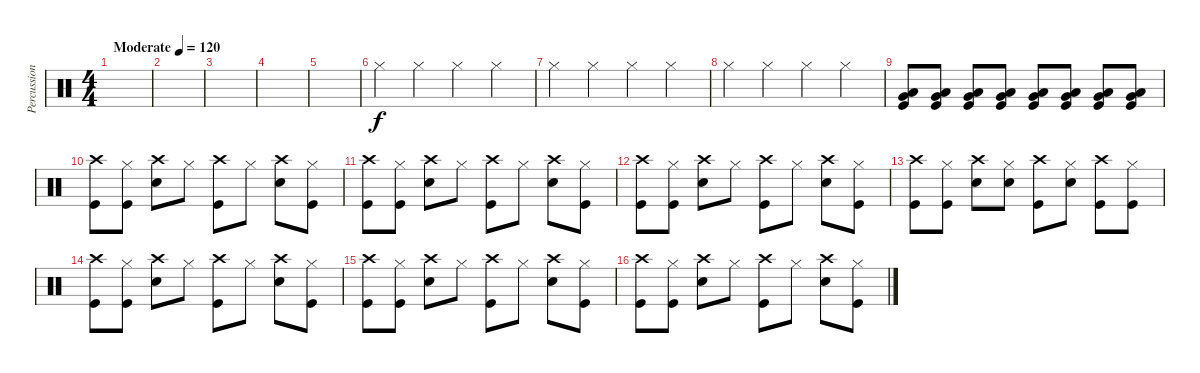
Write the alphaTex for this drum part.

\track ("Percussion" "Percussion") {instrument percussion}
\staff {score}
\articulation defaults
\ts (4 4)
\tempo (120 "Moderate")
\clef neutral
\ks c
|
|
|
|
|
"Hi-Hat (closed)".4 "Hi-Hat (closed)".4 "Hi-Hat (closed)".4 "Hi-Hat (closed)".4 |
"Hi-Hat (closed)".4 "Hi-Hat (closed)".4 "Hi-Hat (closed)".4 "Hi-Hat (closed)".4 |
"Hi-Hat (closed)".4 "Hi-Hat (closed)".4 "Hi-Hat (closed)".4 "Hi-Hat (closed)".4 |
("Very Low Tom (hit)" "Low Tom (hit)" "Kick (hit)").8 ("Very Low Tom (hit)" "Low Tom (hit)" "Kick (hit)").8 ("Very Low Tom (hit)" "Low Tom (hit)" "Kick (hit)").8 ("Very Low Tom (hit)" "Low Tom (hit)" "Kick (hit)").8 ("Very Low Tom (hit)" "Low Tom (hit)" "Kick (hit)").8 ("Very Low Tom (hit)" "Low Tom (hit)" "Kick (hit)").8 ("Very Low Tom (hit)" "Low Tom (hit)" "Kick (hit)").8 ("Very Low Tom (hit)" "Low Tom (hit)" "Kick (hit)").8 |
("Crash high (hit)" "Kick (hit)").8 ("Hi-Hat (closed)" "Kick (hit)").8 ("Crash high (hit)" "Snare (hit) 2").8 "Hi-Hat (closed)".8 ("Crash high (hit)" "Kick (hit)").8 "Hi-Hat (closed)".8 ("Crash high (hit)" "Snare (hit) 2").8 ("Hi-Hat (closed)" "Kick (hit)").8 |
("Crash high (hit)" "Kick (hit)").8 ("Hi-Hat (closed)" "Kick (hit)").8 ("Crash high (hit)" "Snare (hit) 2").8 "Hi-Hat (closed)".8 ("Crash high (hit)" "Kick (hit)").8 "Hi-Hat (closed)".8 ("Crash high (hit)" "Snare (hit) 2").8 ("Hi-Hat (closed)" "Kick (hit)").8 |
("Crash high (hit)" "Kick (hit)").8 ("Hi-Hat (closed)" "Kick (hit)").8 ("Crash high (hit)" "Snare (hit) 2").8 "Hi-Hat (closed)".8 ("Crash high (hit)" "Kick (hit)").8 "Hi-Hat (closed)".8 ("Crash high (hit)" "Snare (hit) 2").8 ("Hi-Hat (closed)" "Kick (hit)").8 |
("Crash high (hit)" "Kick (hit)").8 ("Hi-Hat (closed)" "Kick (hit)").8 ("Crash high (hit)" "Snare (hit) 2").8 ("Hi-Hat (closed)" "Snare (hit) 2").8 ("Crash high (hit)" "Kick (hit)").8 ("Hi-Hat (closed)" "Snare (hit) 2").8 ("Crash high (hit)" "Kick (hit)").8 ("Hi-Hat (closed)" "Kick (hit)").8 |
("Crash high (hit)" "Kick (hit)").8 ("Hi-Hat (closed)" "Kick (hit)").8 ("Crash high (hit)" "Snare (hit) 2").8 "Hi-Hat (closed)".8 ("Crash high (hit)" "Kick (hit)").8 "Hi-Hat (closed)".8 ("Crash high (hit)" "Snare (hit) 2").8 ("Hi-Hat (closed)" "Kick (hit)").8 |
("Crash high (hit)" "Kick (hit)").8 ("Hi-Hat (closed)" "Kick (hit)").8 ("Crash high (hit)" "Snare (hit) 2").8 "Hi-Hat (closed)".8 ("Crash high (hit)" "Kick (hit)").8 "Hi-Hat (closed)".8 ("Crash high (hit)" "Snare (hit) 2").8 ("Hi-Hat (closed)" "Kick (hit)").8 |
("Crash high (hit)" "Kick (hit)").8 ("Hi-Hat (closed)" "Kick (hit)").8 ("Crash high (hit)" "Snare (hit) 2").8 "Hi-Hat (closed)".8 ("Crash high (hit)" "Kick (hit)").8 "Hi-Hat (closed)".8 ("Crash high (hit)" "Snare (hit) 2").8 ("Hi-Hat (closed)" "Kick (hit)").8
